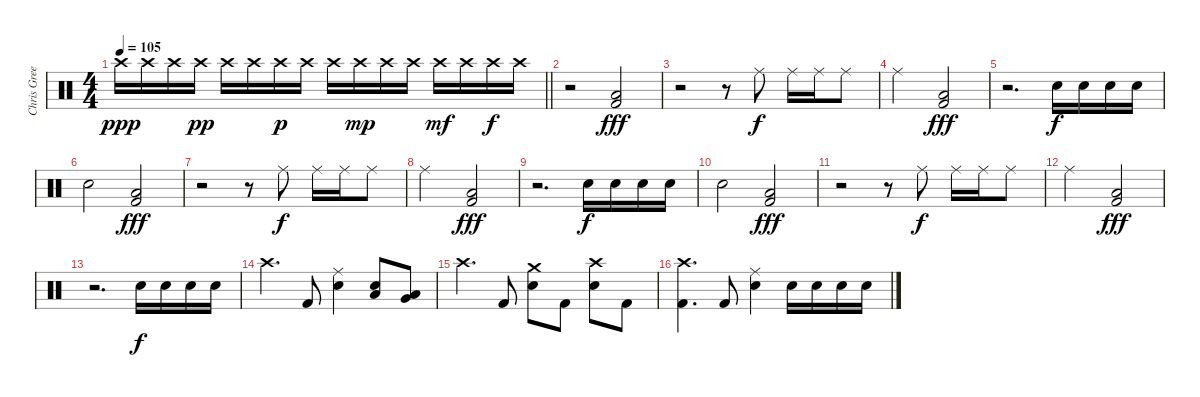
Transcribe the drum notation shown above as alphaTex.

\track ("Chris Greene" "Chris Gree") {instrument percussion}
\staff {score}
\articulation defaults
\ts (4 4)
\tempo 105
\clef neutral
\barLineRight lightlight
\ks c "Crash high (hit)".16{dy ppp} "Crash high (hit)".16 "Crash high (hit)".16 "Crash high (hit)".16{dy pp} "Crash high (hit)".16 "Crash high (hit)".16 "Crash high (hit)".16{dy p} "Crash high (hit)".16 "Crash high (hit)".16 "Crash high (hit)".16{dy mp} "Crash high (hit)".16 "Crash high (hit)".16 "Crash high (hit)".16{dy mf} "Crash high (hit)".16 "Crash high (hit)".16{dy f} "Crash high (hit)".16
|
r.2 ("Low Floor Tom (hit)" "Kick (hit) 2").2{dy fff} |
r.2 r.8 "Ride (middle)".8{dy f} "Ride (middle)".16 "Ride (middle)".16 "Ride (middle)".8 |
"Ride (middle)".2 ("Low Floor Tom (hit)" "Kick (hit) 2").2{dy fff} |
r.2{d} "Electric Snare (hit)".16{dy f} "Electric Snare (hit)".16 "Electric Snare (hit)".16 "Electric Snare (hit)".16 |
"Electric Snare (hit)".2 ("Low Floor Tom (hit)" "Kick (hit) 2").2{dy fff} |
r.2 r.8 "Ride (middle)".8{dy f} "Ride (middle)".16 "Ride (middle)".16 "Ride (middle)".8 |
"Ride (middle)".2 ("Low Floor Tom (hit)" "Kick (hit) 2").2{dy fff} |
r.2{d} "Electric Snare (hit)".16{dy f} "Electric Snare (hit)".16 "Electric Snare (hit)".16 "Electric Snare (hit)".16 |
"Electric Snare (hit)".2 ("Low Floor Tom (hit)" "Kick (hit) 2").2{dy fff} |
r.2 r.8 "Ride (middle)".8{dy f} "Ride (middle)".16 "Ride (middle)".16 "Ride (middle)".8 |
"Ride (middle)".2 ("Low Floor Tom (hit)" "Kick (hit) 2").2{dy fff} |
r.2{d} "Electric Snare (hit)".16{dy f} "Electric Snare (hit)".16 "Electric Snare (hit)".16 "Electric Snare (hit)".16 |
"Crash high (hit)".4{d} "Kick (hit) 2".8 ("Ride (middle)" "Electric Snare (hit)").4 ("Electric Snare (hit)" "Low Tom (hit)").8 ("Very Low Tom (hit)" "Low Tom (hit)").8 |
"Crash high (hit)".4{d} "Kick (hit) 2".8 ("Crash medium (hit)" "Electric Snare (hit)").8 "Kick (hit) 2".8 ("Crash high (hit)" "Electric Snare (hit)").8 "Kick (hit) 2".8 |
("Crash high (hit)" "Kick (hit) 2").4{d} "Kick (hit) 2".8 ("Ride (middle)" "Electric Snare (hit)").4 "Electric Snare (hit)".16 "Electric Snare (hit)".16 "Electric Snare (hit)".16 "Electric Snare (hit)".16
